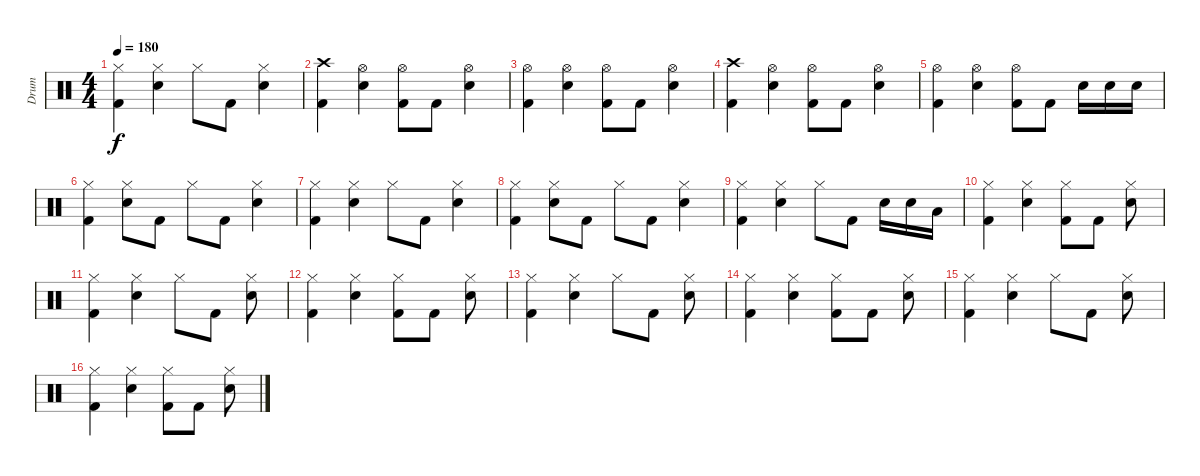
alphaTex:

\track ("Drum" "Drum") {instrument percussion}
\staff {score}
\articulation defaults
\ts (4 4)
\tempo 180
\clef neutral
\ks c
("Hi-Hat (closed)" "Kick (hit) 2").4{dy f} ("Hi-Hat (closed)" "Electric Snare (hit)").4 "Hi-Hat (closed)".8 "Kick (hit) 2".8 ("Hi-Hat (closed)" "Electric Snare (hit)").4 |
("Crash high (hit)" "Kick (hit) 2").4 ("Hi-Hat (open)" "Electric Snare (hit)").4 ("Hi-Hat (open)" "Kick (hit) 2").8 "Kick (hit) 2".8 ("Hi-Hat (open)" "Electric Snare (hit)").4 |
("Hi-Hat (open)" "Kick (hit) 2").4 ("Hi-Hat (open)" "Electric Snare (hit)").4 ("Hi-Hat (open)" "Kick (hit) 2").8 "Kick (hit) 2".8 ("Hi-Hat (open)" "Electric Snare (hit)").4 |
("Crash high (hit)" "Kick (hit) 2").4 ("Hi-Hat (open)" "Electric Snare (hit)").4 ("Hi-Hat (open)" "Kick (hit) 2").8 "Kick (hit) 2".8 ("Hi-Hat (open)" "Electric Snare (hit)").4 |
("Hi-Hat (open)" "Kick (hit) 2").4 ("Hi-Hat (open)" "Electric Snare (hit)").4 ("Hi-Hat (open)" "Kick (hit) 2").8 "Kick (hit) 2".8 "Electric Snare (hit)".16 "Electric Snare (hit)".16 "Electric Snare (hit)".16 |
("Hi-Hat (closed)" "Kick (hit) 2").4 ("Hi-Hat (closed)" "Electric Snare (hit)").8 "Kick (hit) 2".8 "Hi-Hat (closed)".8 "Kick (hit) 2".8 ("Hi-Hat (closed)" "Electric Snare (hit)").4 |
("Hi-Hat (closed)" "Kick (hit) 2").4 ("Hi-Hat (closed)" "Electric Snare (hit)").4 "Hi-Hat (closed)".8 "Kick (hit) 2".8 ("Hi-Hat (closed)" "Electric Snare (hit)").4 |
("Hi-Hat (closed)" "Kick (hit) 2").4 ("Hi-Hat (closed)" "Electric Snare (hit)").8 "Kick (hit) 2".8 "Hi-Hat (closed)".8 "Kick (hit) 2".8 ("Hi-Hat (closed)" "Electric Snare (hit)").4 |
("Hi-Hat (closed)" "Kick (hit) 2").4 ("Hi-Hat (closed)" "Electric Snare (hit)").4 "Hi-Hat (closed)".8 "Kick (hit) 2".8 "Electric Snare (hit)".16 "Electric Snare (hit)".16 "Low Tom (hit)".16 |
("Hi-Hat (closed)" "Kick (hit) 2").4 ("Hi-Hat (closed)" "Electric Snare (hit)").4 ("Hi-Hat (closed)" "Kick (hit) 2").8 "Kick (hit) 2".8 ("Hi-Hat (closed)" "Electric Snare (hit)").8 |
("Hi-Hat (closed)" "Kick (hit) 2").4 ("Hi-Hat (closed)" "Electric Snare (hit)").4 "Hi-Hat (closed)".8 "Kick (hit) 2".8 ("Hi-Hat (closed)" "Electric Snare (hit)").8 |
("Hi-Hat (closed)" "Kick (hit) 2").4 ("Hi-Hat (closed)" "Electric Snare (hit)").4 ("Hi-Hat (closed)" "Kick (hit) 2").8 "Kick (hit) 2".8 ("Hi-Hat (closed)" "Electric Snare (hit)").8 |
("Hi-Hat (closed)" "Kick (hit) 2").4 ("Hi-Hat (closed)" "Electric Snare (hit)").4 "Hi-Hat (closed)".8 "Kick (hit) 2".8 ("Hi-Hat (closed)" "Electric Snare (hit)").8 |
("Hi-Hat (closed)" "Kick (hit) 2").4 ("Hi-Hat (closed)" "Electric Snare (hit)").4 ("Hi-Hat (closed)" "Kick (hit) 2").8 "Kick (hit) 2".8 ("Hi-Hat (closed)" "Electric Snare (hit)").8 |
("Hi-Hat (closed)" "Kick (hit) 2").4 ("Hi-Hat (closed)" "Electric Snare (hit)").4 "Hi-Hat (closed)".8 "Kick (hit) 2".8 ("Hi-Hat (closed)" "Electric Snare (hit)").8 |
("Hi-Hat (closed)" "Kick (hit) 2").4 ("Hi-Hat (closed)" "Electric Snare (hit)").4 ("Hi-Hat (closed)" "Kick (hit) 2").8 "Kick (hit) 2".8 ("Hi-Hat (closed)" "Electric Snare (hit)").8
